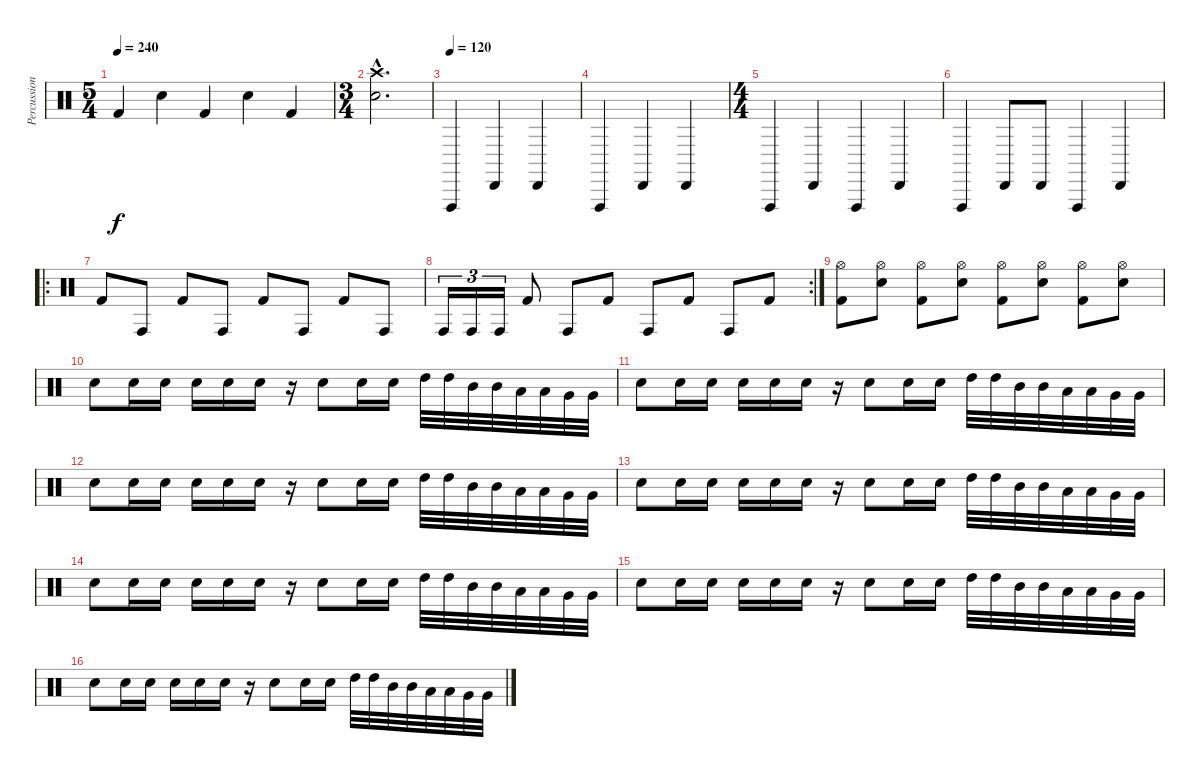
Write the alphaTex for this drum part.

\track ("Percussion" "Percussion") {instrument percussion}
\staff {score}
\articulation defaults
\ts (5 4)
\tempo 240
\clef neutral
\ks c "Kick (hit) 2".4{dy f} "Electric Snare (hit)".4 "Kick (hit) 2".4 "Electric Snare (hit)".4 "Kick (hit) 2".4
|
\ts (3 4)
("Crash high (hit)"{hac} "Electric Snare (hit)"{hac}).2{d} |
\tempo (120)
"Vibraslap (hit)".4 "Cabasa (hit)".4 "Cabasa (hit)".4 |
"Vibraslap (hit)".4 "Cabasa (hit)".4 "Cabasa (hit)".4 |
\ts (4 4)
"Vibraslap (hit)".4 "Cabasa (hit)".4 "Vibraslap (hit)".4 "Cabasa (hit)".4 |
"Vibraslap (hit)".4 "Cabasa (hit)".8 "Cabasa (hit)".8 "Vibraslap (hit)".4 "Cabasa (hit)".4 |
\ro "Kick (hit) 2".8 "Conga high (hit)".8 "Kick (hit) 2".8 "Conga high (hit)".8 "Kick (hit) 2".8 "Conga high (hit)".8 "Kick (hit) 2".8 "Conga high (hit)".8
|
\rc 2 "Conga high (hit)".16{tu (3 2)} "Conga high (hit)".16{tu (3 2)} "Conga high (hit)".16{tu (3 2)} "Kick (hit) 2".8 "Conga high (hit)".8 "Kick (hit) 2".8 "Conga high (hit)".8 "Kick (hit) 2".8 "Conga high (hit)".8 "Kick (hit) 2".8
|
("Hi-Hat (open)" "Kick (hit) 2").8 ("Hi-Hat (open)" "Electric Snare (hit)").8 ("Hi-Hat (open)" "Kick (hit) 2").8 ("Hi-Hat (open)" "Electric Snare (hit)").8 ("Hi-Hat (open)" "Kick (hit) 2").8 ("Hi-Hat (open)" "Electric Snare (hit)").8 ("Hi-Hat (open)" "Kick (hit) 2").8 ("Hi-Hat (open)" "Electric Snare (hit)").8 |
"Electric Snare (hit)".8 "Electric Snare (hit)".16 "Electric Snare (hit)".16 "Electric Snare (hit)".16 "Electric Snare (hit)".16 "Electric Snare (hit)".16 r.16 "Electric Snare (hit)".8 "Electric Snare (hit)".16 "Electric Snare (hit)".16 "High Tom (hit)".32 "High Tom (hit)".32 "Mid Tom (hit)".32 "Mid Tom (hit)".32 "Low Tom (hit)".32 "Low Tom (hit)".32 "Very Low Tom (hit)".32 "Very Low Tom (hit)".32 |
"Electric Snare (hit)".8 "Electric Snare (hit)".16 "Electric Snare (hit)".16 "Electric Snare (hit)".16 "Electric Snare (hit)".16 "Electric Snare (hit)".16 r.16 "Electric Snare (hit)".8 "Electric Snare (hit)".16 "Electric Snare (hit)".16 "High Tom (hit)".32 "High Tom (hit)".32 "Mid Tom (hit)".32 "Mid Tom (hit)".32 "Low Tom (hit)".32 "Low Tom (hit)".32 "Very Low Tom (hit)".32 "Very Low Tom (hit)".32 |
"Electric Snare (hit)".8 "Electric Snare (hit)".16 "Electric Snare (hit)".16 "Electric Snare (hit)".16 "Electric Snare (hit)".16 "Electric Snare (hit)".16 r.16 "Electric Snare (hit)".8 "Electric Snare (hit)".16 "Electric Snare (hit)".16 "High Tom (hit)".32 "High Tom (hit)".32 "Mid Tom (hit)".32 "Mid Tom (hit)".32 "Low Tom (hit)".32 "Low Tom (hit)".32 "Very Low Tom (hit)".32 "Very Low Tom (hit)".32 |
"Electric Snare (hit)".8 "Electric Snare (hit)".16 "Electric Snare (hit)".16 "Electric Snare (hit)".16 "Electric Snare (hit)".16 "Electric Snare (hit)".16 r.16 "Electric Snare (hit)".8 "Electric Snare (hit)".16 "Electric Snare (hit)".16 "High Tom (hit)".32 "High Tom (hit)".32 "Mid Tom (hit)".32 "Mid Tom (hit)".32 "Low Tom (hit)".32 "Low Tom (hit)".32 "Very Low Tom (hit)".32 "Very Low Tom (hit)".32 |
"Electric Snare (hit)".8 "Electric Snare (hit)".16 "Electric Snare (hit)".16 "Electric Snare (hit)".16 "Electric Snare (hit)".16 "Electric Snare (hit)".16 r.16 "Electric Snare (hit)".8 "Electric Snare (hit)".16 "Electric Snare (hit)".16 "High Tom (hit)".32 "High Tom (hit)".32 "Mid Tom (hit)".32 "Mid Tom (hit)".32 "Low Tom (hit)".32 "Low Tom (hit)".32 "Very Low Tom (hit)".32 "Very Low Tom (hit)".32 |
"Electric Snare (hit)".8 "Electric Snare (hit)".16 "Electric Snare (hit)".16 "Electric Snare (hit)".16 "Electric Snare (hit)".16 "Electric Snare (hit)".16 r.16 "Electric Snare (hit)".8 "Electric Snare (hit)".16 "Electric Snare (hit)".16 "High Tom (hit)".32 "High Tom (hit)".32 "Mid Tom (hit)".32 "Mid Tom (hit)".32 "Low Tom (hit)".32 "Low Tom (hit)".32 "Very Low Tom (hit)".32 "Very Low Tom (hit)".32 |
"Electric Snare (hit)".8 "Electric Snare (hit)".16 "Electric Snare (hit)".16 "Electric Snare (hit)".16 "Electric Snare (hit)".16 "Electric Snare (hit)".16 r.16 "Electric Snare (hit)".8 "Electric Snare (hit)".16 "Electric Snare (hit)".16 "High Tom (hit)".32 "High Tom (hit)".32 "Mid Tom (hit)".32 "Mid Tom (hit)".32 "Low Tom (hit)".32 "Low Tom (hit)".32 "Very Low Tom (hit)".32 "Very Low Tom (hit)".32
